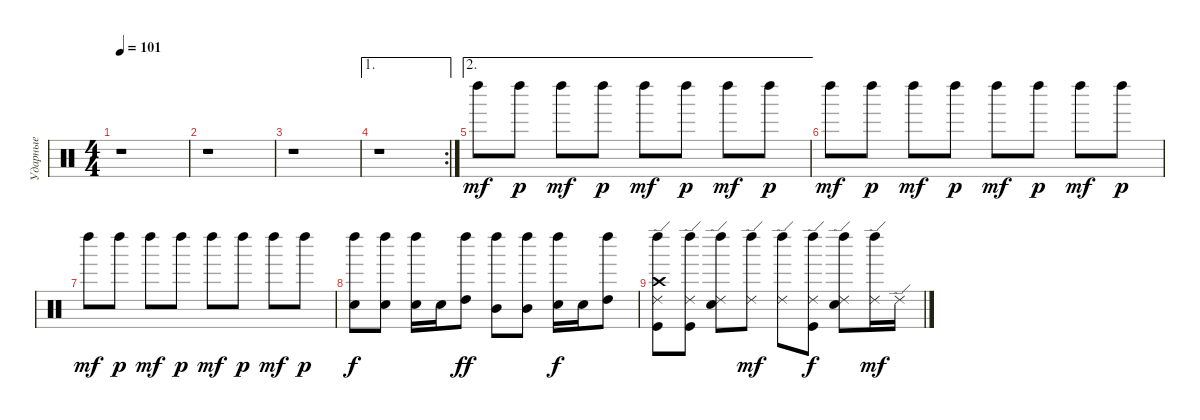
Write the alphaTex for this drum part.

\track ("Ударные" "Ударные") {instrument percussion}
\staff {score}
\articulation defaults
\ts (4 4)
\tempo 101
\clef neutral
\ks c
r.1{dy mf} |
r.1 |
r.1 |
\ae 1
\rc 2
r.1 |
\ae 2 "Left Maraca (hit)".8{volume 4} "Left Maraca (hit)".8{dy p} "Left Maraca (hit)".8{dy mf} "Left Maraca (hit)".8{dy p} "Left Maraca (hit)".8{dy mf} "Left Maraca (hit)".8{dy p} "Left Maraca (hit)".8{dy mf} "Left Maraca (hit)".8{dy p}
|
"Left Maraca (hit)".8{dy mf} "Left Maraca (hit)".8{dy p} "Left Maraca (hit)".8{dy mf} "Left Maraca (hit)".8{dy p} "Left Maraca (hit)".8{dy mf} "Left Maraca (hit)".8{dy p} "Left Maraca (hit)".8{dy mf} "Left Maraca (hit)".8{dy p volume 3} |
"Left Maraca (hit)".8{dy mf volume 4} "Left Maraca (hit)".8{dy p} "Left Maraca (hit)".8{dy mf} "Left Maraca (hit)".8{dy p} "Left Maraca (hit)".8{dy mf} "Left Maraca (hit)".8{dy p} "Left Maraca (hit)".8{dy mf} "Left Maraca (hit)".8{dy p} |
("Snare (hit) 2" "Left Maraca (hit)").8{dy f} ("Snare (hit) 2" "Left Maraca (hit)").8 ("Snare (hit) 2" "Left Maraca (hit)").16 "Snare (hit) 2".16 ("High Tom (hit)" "Left Maraca (hit)").8{dy ff} ("Mid Tom (hit)" "Left Maraca (hit)").8 ("Mid Tom (hit)" "Left Maraca (hit)").8 ("Snare (hit) 2" "Left Maraca (hit)").16{dy f} "Snare (hit) 2".16 ("High Tom (hit)" "Left Maraca (hit)").8 |
("Kick (hit)" "Crash high (hit)" "Ride (edge) 2" "Left Maraca (hit)").8{volume 8} ("Kick (hit)" "Ride (edge) 2" "Left Maraca (hit)").8 ("Snare (hit) 2" "Ride (edge) 2" "Left Maraca (hit)").8 ("Ride (edge) 2" "Left Maraca (hit)").8{dy mf} ("Ride (edge) 2" "Left Maraca (hit)").8 ("Kick (hit)" "Ride (edge) 2" "Left Maraca (hit)").8{dy f} ("Snare (hit) 2" "Ride (edge) 2" "Left Maraca (hit)").8 ("Ride (edge) 2" "Left Maraca (hit)").16{dy mf} "Ride (edge) 2".16
